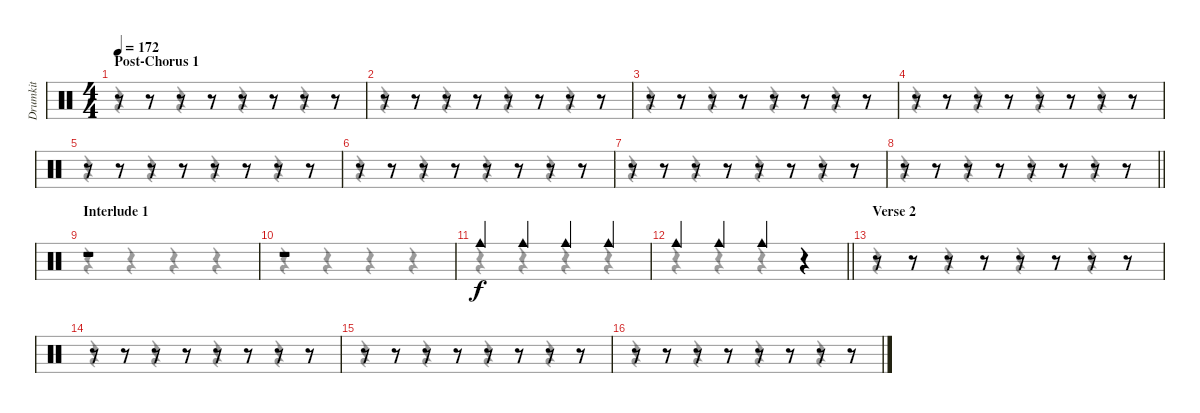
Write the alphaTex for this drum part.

\track ("Drumkit" "Drumkit") {instrument percussion}
\staff {score}
\articulation defaults
\voice
\ts (4 4)
\section ("" "Post-Chorus 1")
\tempo 172
\clef neutral
\ks c
r.8{dy f} r.8 r.8 r.8 r.8 r.8 r.8 r.8 |
r.8 r.8 r.8 r.8 r.8 r.8 r.8 r.8 |
r.8 r.8 r.8 r.8 r.8 r.8 r.8 r.8 |
r.8 r.8 r.8 r.8 r.8 r.8 r.8 r.8 |
r.8 r.8 r.8 r.8 r.8 r.8 r.8 r.8 |
r.8 r.8 r.8 r.8 r.8 r.8 r.8 r.8 |
r.8 r.8 r.8 r.8 r.8 r.8 r.8 r.8 |
\barLineRight lightlight
r.8 r.8 r.8 r.8 r.8 r.8 r.8 r.8 |
\section ("" "Interlude 1")
r.1 |
r.1 |
"Cowbell medium (hit)".4 "Cowbell medium (hit)".4 "Cowbell medium (hit)".4 "Cowbell medium (hit)".4 |
\barLineRight lightlight "Cowbell medium (hit)".4 "Cowbell medium (hit)".4 "Cowbell medium (hit)".4
r.4 |
\section ("" "Verse 2")
r.8 r.8 r.8 r.8 r.8 r.8 r.8 r.8 |
r.8 r.8 r.8 r.8 r.8 r.8 r.8 r.8 |
r.8 r.8 r.8 r.8 r.8 r.8 r.8 r.8 |
r.8 r.8 r.8 r.8 r.8 r.8 r.8 r.8
\voice
\clef neutral
\ottava regular
\simile none
\ks c
r.4{dy f} r.4 r.4 r.4 |
r.4 r.4 r.4 r.4 |
r.4 r.4 r.4 r.4 |
r.4 r.4 r.4 r.4 |
r.4 r.4 r.4 r.4 |
r.4 r.4 r.4 r.4 |
r.4 r.4 r.4 r.4 |
\barLineRight lightlight
r.4 r.4 r.4 r.4 |
r.4 r.4 r.4 r.4 |
r.4 r.4 r.4 r.4 |
r.4 r.4 r.4 r.4 |
\barLineRight lightlight
r.4 r.4 r.4 r.4 |
r.4 r.4 r.4 r.4 |
r.4 r.4 r.4 r.4 |
r.4 r.4 r.4 r.4 |
r.4 r.4 r.4 r.4
